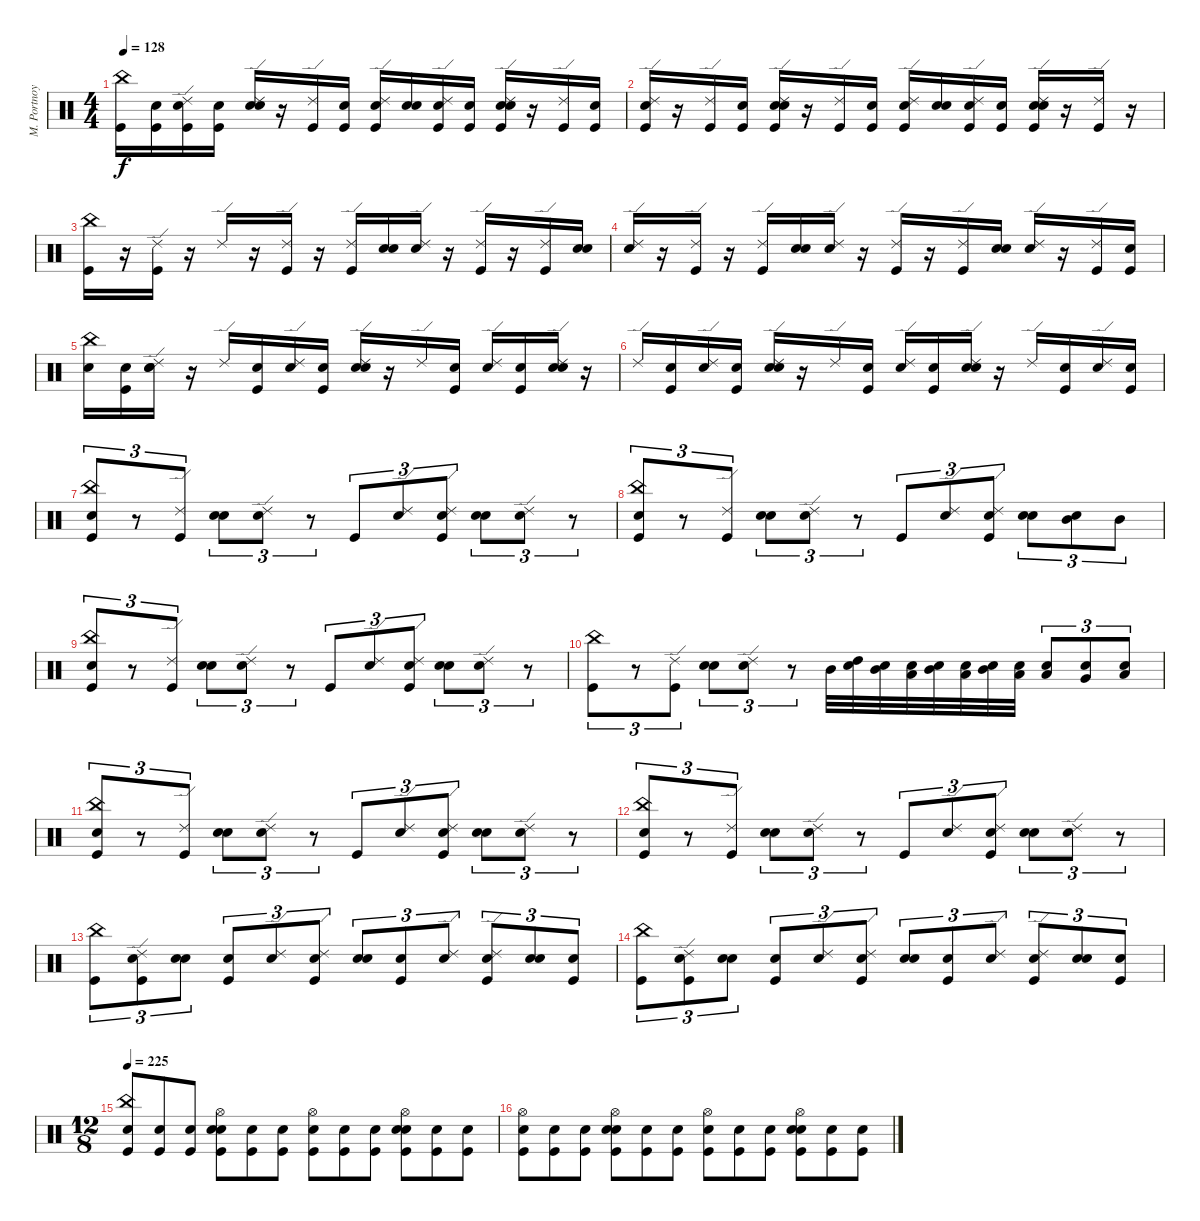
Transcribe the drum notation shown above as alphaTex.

\track ("M. Portnoy" "M. Portnoy") {instrument percussion}
\staff {score}
\articulation defaults
\ts (4 4)
\tempo 128
\clef neutral
\ks c
("Kick (hit)" "China (hit)").16{dy f} ("Snare (hit)" "Kick (hit)").16 ("Snare (hit)" "Kick (hit)" "Ride (edge) 2").16 ("Snare (hit)" "Kick (hit)").16 ("Snare (hit)" "Snare (hit) 2" "Ride (edge) 2").16 r.16 ("Kick (hit)" "Ride (edge) 2").16 ("Snare (hit)" "Kick (hit)").16 ("Snare (hit)" "Kick (hit)" "Ride (edge) 2").16 ("Snare (hit)" "Snare (hit) 2").16 ("Snare (hit)" "Kick (hit)" "Ride (edge) 2").16 ("Snare (hit)" "Kick (hit)").16 ("Snare (hit)" "Kick (hit)" "Snare (hit) 2" "Ride (edge) 2").16 r.16 ("Kick (hit)" "Ride (edge) 2").16 ("Snare (hit)" "Kick (hit)").16 |
("Snare (hit)" "Kick (hit)" "Ride (edge) 2").16 r.16 ("Kick (hit)" "Ride (edge) 2").16 ("Snare (hit)" "Kick (hit)").16 ("Snare (hit)" "Kick (hit)" "Snare (hit) 2" "Ride (edge) 2").16 r.16 ("Kick (hit)" "Ride (edge) 2").16 ("Snare (hit)" "Kick (hit)").16 ("Snare (hit)" "Kick (hit)" "Ride (edge) 2").16 ("Snare (hit)" "Snare (hit) 2").16 ("Snare (hit)" "Kick (hit)" "Ride (edge) 2").16 ("Snare (hit)" "Kick (hit)").16 ("Snare (hit)" "Kick (hit)" "Snare (hit) 2" "Ride (edge) 2").16 r.16 ("Kick (hit)" "Ride (edge) 2").16 r.16 |
("Kick (hit)" "China (hit)").16 r.16 ("Kick (hit)" "Ride (edge) 2").16 r.16 "Ride (edge) 2".16 r.16 ("Kick (hit)" "Ride (edge) 2").16 r.16 ("Kick (hit)" "Ride (edge) 2").16 ("Snare (hit)" "Snare (hit) 2").16 ("Snare (hit)" "Ride (edge) 2").16 r.16 ("Kick (hit)" "Ride (edge) 2").16 r.16 ("Kick (hit)" "Ride (edge) 2").16 ("Snare (hit)" "Snare (hit) 2").16 |
("Snare (hit)" "Ride (edge) 2").16 r.16 ("Kick (hit)" "Ride (edge) 2").16 r.16 ("Kick (hit)" "Ride (edge) 2").16 ("Snare (hit)" "Snare (hit) 2").16 ("Snare (hit)" "Ride (edge) 2").16 r.16 ("Kick (hit)" "Ride (edge) 2").16 r.16 ("Kick (hit)" "Ride (edge) 2").16 ("Snare (hit)" "Snare (hit) 2").16 ("Snare (hit)" "Ride (edge) 2").16 r.16 ("Kick (hit)" "Ride (edge) 2").16 ("Snare (hit)" "Kick (hit)").16 |
("Snare (hit)" "China (hit)").16 ("Snare (hit)" "Kick (hit)").16 ("Snare (hit)" "Snare (hit) 2" "Ride (edge) 2").16 r.16 "Ride (edge) 2".16 ("Snare (hit)" "Kick (hit)").16 ("Snare (hit)" "Ride (edge) 2").16 ("Snare (hit)" "Kick (hit)").16 ("Snare (hit)" "Snare (hit) 2" "Ride (edge) 2").16 r.16 "Ride (edge) 2".16 ("Snare (hit)" "Kick (hit)").16 ("Snare (hit)" "Ride (edge) 2").16 ("Snare (hit)" "Kick (hit)").16 ("Snare (hit)" "Snare (hit) 2" "Ride (edge) 2").16 r.16 |
"Ride (edge) 2".16 ("Snare (hit)" "Kick (hit)").16 ("Snare (hit)" "Ride (edge) 2").16 ("Snare (hit)" "Kick (hit)").16 ("Snare (hit)" "Snare (hit) 2" "Ride (edge) 2").16 r.16 "Ride (edge) 2".16 ("Snare (hit)" "Kick (hit)").16 ("Snare (hit)" "Ride (edge) 2").16 ("Snare (hit)" "Kick (hit)").16 ("Snare (hit)" "Snare (hit) 2" "Ride (edge) 2").16 r.16 "Ride (edge) 2".16 ("Snare (hit)" "Kick (hit)").16 ("Snare (hit)" "Ride (edge) 2").16 ("Snare (hit)" "Kick (hit)").16 |
("Snare (hit)" "Kick (hit)" "China (hit)").8{tu (3 2)} r.8{tu (3 2)} ("Kick (hit)" "Ride (edge) 2").8{tu (3 2)} ("Snare (hit)" "Snare (hit) 2").8{tu (3 2)} ("Snare (hit)" "Ride (edge) 2").8{tu (3 2)} r.8{tu (3 2)} "Kick (hit)".8{tu (3 2)} ("Snare (hit)" "Ride (edge) 2").8{tu (3 2)} ("Snare (hit)" "Kick (hit)" "Ride (edge) 2").8{tu (3 2)} ("Snare (hit)" "Snare (hit) 2").8{tu (3 2)} ("Snare (hit)" "Ride (edge) 2").8{tu (3 2)} r.8{tu (3 2)} |
("Snare (hit)" "Kick (hit)" "China (hit)").8{tu (3 2)} r.8{tu (3 2)} ("Kick (hit)" "Ride (edge) 2").8{tu (3 2)} ("Snare (hit)" "Snare (hit) 2").8{tu (3 2)} ("Snare (hit)" "Ride (edge) 2").8{tu (3 2)} r.8{tu (3 2)} "Kick (hit)".8{tu (3 2)} ("Snare (hit)" "Ride (edge) 2").8{tu (3 2)} ("Snare (hit)" "Kick (hit)" "Ride (edge) 2").8{tu (3 2)} ("Snare (hit)" "Snare (hit) 2").8{tu (3 2)} ("Snare (hit)" "Mid Tom (hit)").8{tu (3 2)} "Mid Tom (hit)".8{tu (3 2)} |
("Snare (hit)" "Kick (hit)" "China (hit)").8{tu (3 2)} r.8{tu (3 2)} ("Kick (hit)" "Ride (edge) 2").8{tu (3 2)} ("Snare (hit)" "Snare (hit) 2").8{tu (3 2)} ("Snare (hit)" "Ride (edge) 2").8{tu (3 2)} r.8{tu (3 2)} "Kick (hit)".8{tu (3 2)} ("Snare (hit)" "Ride (edge) 2").8{tu (3 2)} ("Snare (hit)" "Kick (hit)" "Ride (edge) 2").8{tu (3 2)} ("Snare (hit)" "Snare (hit) 2").8{tu (3 2)} ("Snare (hit)" "Ride (edge) 2").8{tu (3 2)} r.8{tu (3 2)} |
("Kick (hit)" "China (hit)").8{tu (3 2)} r.8{tu (3 2)} ("Kick (hit)" "Ride (edge) 2").8{tu (3 2)} ("Snare (hit)" "Snare (hit) 2").8{tu (3 2)} ("Snare (hit)" "Ride (edge) 2").8{tu (3 2)} r.8{tu (3 2)} "Mid Tom (hit)".32 ("Snare (hit)" "High Tom (hit)").32 ("Snare (hit)" "Mid Tom (hit)").32 ("Snare (hit)" "Low Tom (hit)").32 ("Snare (hit)" "Mid Tom (hit)").32 ("Snare (hit)" "Low Tom (hit)").32 ("Snare (hit)" "Mid Tom (hit)").32 ("Snare (hit)" "Low Tom (hit)").32 ("Snare (hit)" "Low Tom (hit)").8{tu (3 2)} ("Snare (hit)" "Very Low Tom (hit)").8{tu (3 2)} ("Snare (hit)" "Low Floor Tom (hit)").8{tu (3 2)} |
("Snare (hit)" "Kick (hit)" "China (hit)").8{tu (3 2)} r.8{tu (3 2)} ("Kick (hit)" "Ride (edge) 2").8{tu (3 2)} ("Snare (hit)" "Snare (hit) 2").8{tu (3 2)} ("Snare (hit)" "Ride (edge) 2").8{tu (3 2)} r.8{tu (3 2)} "Kick (hit)".8{tu (3 2)} ("Snare (hit)" "Ride (edge) 2").8{tu (3 2)} ("Snare (hit)" "Kick (hit)" "Ride (edge) 2").8{tu (3 2)} ("Snare (hit)" "Snare (hit) 2").8{tu (3 2)} ("Snare (hit)" "Ride (edge) 2").8{tu (3 2)} r.8{tu (3 2)} |
("Snare (hit)" "Kick (hit)" "China (hit)").8{tu (3 2)} r.8{tu (3 2)} ("Kick (hit)" "Ride (edge) 2").8{tu (3 2)} ("Snare (hit)" "Snare (hit) 2").8{tu (3 2)} ("Snare (hit)" "Ride (edge) 2").8{tu (3 2)} r.8{tu (3 2)} "Kick (hit)".8{tu (3 2)} ("Snare (hit)" "Ride (edge) 2").8{tu (3 2)} ("Snare (hit)" "Kick (hit)" "Ride (edge) 2").8{tu (3 2)} ("Snare (hit)" "Snare (hit) 2").8{tu (3 2)} ("Snare (hit)" "Ride (edge) 2").8{tu (3 2)} r.8{tu (3 2)} |
("Kick (hit)" "China (hit)").8{tu (3 2)} ("Snare (hit)" "Kick (hit)" "Ride (edge) 2").8{tu (3 2)} ("Snare (hit)" "Snare (hit) 2").8{tu (3 2)} ("Snare (hit)" "Kick (hit)").8{tu (3 2)} ("Snare (hit)" "Ride (edge) 2").8{tu (3 2)} ("Snare (hit)" "Kick (hit)" "Ride (edge) 2").8{tu (3 2)} ("Snare (hit)" "Snare (hit) 2").8{tu (3 2)} ("Snare (hit)" "Kick (hit)").8{tu (3 2)} ("Snare (hit)" "Ride (edge) 2").8{tu (3 2)} ("Snare (hit)" "Kick (hit)" "Ride (edge) 2").8{tu (3 2)} ("Snare (hit)" "Snare (hit) 2").8{tu (3 2)} ("Snare (hit)" "Kick (hit)").8{tu (3 2)} |
("Kick (hit)" "China (hit)").8{tu (3 2)} ("Snare (hit)" "Kick (hit)" "Ride (edge) 2").8{tu (3 2)} ("Snare (hit)" "Snare (hit) 2").8{tu (3 2)} ("Snare (hit)" "Kick (hit)").8{tu (3 2)} ("Snare (hit)" "Ride (edge) 2").8{tu (3 2)} ("Snare (hit)" "Kick (hit)" "Ride (edge) 2").8{tu (3 2)} ("Snare (hit)" "Snare (hit) 2").8{tu (3 2)} ("Snare (hit)" "Kick (hit)").8{tu (3 2)} ("Snare (hit)" "Ride (edge) 2").8{tu (3 2)} ("Snare (hit)" "Kick (hit)" "Ride (edge) 2").8{tu (3 2)} ("Snare (hit)" "Snare (hit) 2").8{tu (3 2)} ("Snare (hit)" "Kick (hit)").8{tu (3 2)} |
\ts (12 8)
\tempo 225
("Snare (hit)" "Kick (hit)" "China (hit)").8 ("Snare (hit)" "Kick (hit)").8 ("Snare (hit)" "Kick (hit)").8 ("Snare (hit)" "Kick (hit)" "Snare (hit) 2" "Hi-Hat (open)").8 ("Snare (hit)" "Kick (hit)").8 ("Snare (hit)" "Kick (hit)").8 ("Snare (hit)" "Kick (hit)" "Hi-Hat (open)").8 ("Snare (hit)" "Kick (hit)").8 ("Snare (hit)" "Kick (hit)").8 ("Snare (hit)" "Kick (hit)" "Snare (hit) 2" "Hi-Hat (open)").8 ("Snare (hit)" "Kick (hit)").8 ("Snare (hit)" "Kick (hit)").8 |
("Snare (hit)" "Kick (hit)" "Hi-Hat (open)").8 ("Snare (hit)" "Kick (hit)").8 ("Snare (hit)" "Kick (hit)").8 ("Snare (hit)" "Kick (hit)" "Snare (hit) 2" "Hi-Hat (open)").8 ("Snare (hit)" "Kick (hit)").8 ("Snare (hit)" "Kick (hit)").8 ("Snare (hit)" "Kick (hit)" "Hi-Hat (open)").8 ("Snare (hit)" "Kick (hit)").8 ("Snare (hit)" "Kick (hit)").8 ("Snare (hit)" "Kick (hit)" "Snare (hit) 2" "Hi-Hat (open)").8 ("Snare (hit)" "Kick (hit)").8 ("Snare (hit)" "Kick (hit)").8
